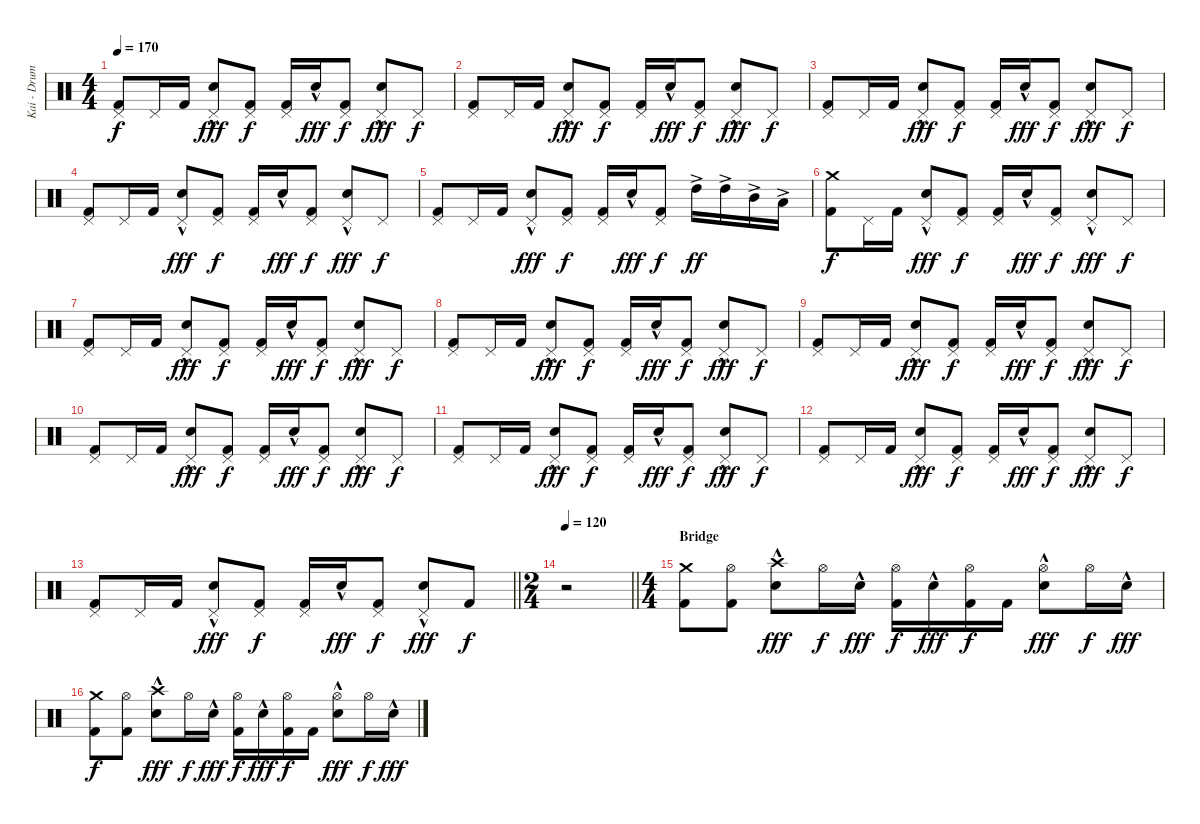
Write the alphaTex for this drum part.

\track ("Kai - Drums" "Kai - Drum") {instrument percussion}
\staff {score}
\articulation defaults
\ts (4 4)
\tempo 170
\clef neutral
\ks c
("Pedal Hi-Hat (hit)" "Kick (hit) 2").8{dy f} "Pedal Hi-Hat (hit)".16 "Kick (hit) 2".16 ("Pedal Hi-Hat (hit)" "Electric Snare (hit)"{hac}).8{dy fff} ("Pedal Hi-Hat (hit)" "Kick (hit) 2").8{dy f} ("Pedal Hi-Hat (hit)" "Kick (hit) 2").16 "Electric Snare (hit)"{hac}.16{dy fff} ("Pedal Hi-Hat (hit)" "Kick (hit) 2").8{dy f} ("Pedal Hi-Hat (hit)" "Electric Snare (hit)"{hac}).8{dy fff} "Pedal Hi-Hat (hit)".8{dy f} |
("Pedal Hi-Hat (hit)" "Kick (hit) 2").8 "Pedal Hi-Hat (hit)".16 "Kick (hit) 2".16 ("Pedal Hi-Hat (hit)" "Electric Snare (hit)"{hac}).8{dy fff} ("Pedal Hi-Hat (hit)" "Kick (hit) 2").8{dy f} ("Pedal Hi-Hat (hit)" "Kick (hit) 2").16 "Electric Snare (hit)"{hac}.16{dy fff} ("Pedal Hi-Hat (hit)" "Kick (hit) 2").8{dy f} ("Pedal Hi-Hat (hit)" "Electric Snare (hit)"{hac}).8{dy fff} "Pedal Hi-Hat (hit)".8{dy f} |
("Pedal Hi-Hat (hit)" "Kick (hit) 2").8 "Pedal Hi-Hat (hit)".16 "Kick (hit) 2".16 ("Pedal Hi-Hat (hit)" "Electric Snare (hit)"{hac}).8{dy fff} ("Pedal Hi-Hat (hit)" "Kick (hit) 2").8{dy f} ("Pedal Hi-Hat (hit)" "Kick (hit) 2").16 "Electric Snare (hit)"{hac}.16{dy fff} ("Pedal Hi-Hat (hit)" "Kick (hit) 2").8{dy f} ("Pedal Hi-Hat (hit)" "Electric Snare (hit)"{hac}).8{dy fff} "Pedal Hi-Hat (hit)".8{dy f} |
("Pedal Hi-Hat (hit)" "Kick (hit) 2").8 "Pedal Hi-Hat (hit)".16 "Kick (hit) 2".16 ("Pedal Hi-Hat (hit)" "Electric Snare (hit)"{hac}).8{dy fff} ("Pedal Hi-Hat (hit)" "Kick (hit) 2").8{dy f} ("Pedal Hi-Hat (hit)" "Kick (hit) 2").16 "Electric Snare (hit)"{hac}.16{dy fff} ("Pedal Hi-Hat (hit)" "Kick (hit) 2").8{dy f} ("Pedal Hi-Hat (hit)" "Electric Snare (hit)"{hac}).8{dy fff} "Pedal Hi-Hat (hit)".8{dy f} |
("Pedal Hi-Hat (hit)" "Kick (hit) 2").8 "Pedal Hi-Hat (hit)".16 "Kick (hit) 2".16 ("Pedal Hi-Hat (hit)" "Electric Snare (hit)"{hac}).8{dy fff} ("Pedal Hi-Hat (hit)" "Kick (hit) 2").8{dy f} ("Pedal Hi-Hat (hit)" "Kick (hit) 2").16 "Electric Snare (hit)"{hac}.16{dy fff} ("Pedal Hi-Hat (hit)" "Kick (hit) 2").8{dy f} "High Tom (hit)"{ac}.16{dy ff} "High Tom (hit)"{ac}.16 "Mid Tom (hit)"{ac}.16 "Low Tom (hit)"{ac}.16 |
("Crash medium (hit)" "Kick (hit) 2").8{dy f} "Pedal Hi-Hat (hit)".16 "Kick (hit) 2".16 ("Pedal Hi-Hat (hit)" "Electric Snare (hit)"{hac}).8{dy fff} ("Pedal Hi-Hat (hit)" "Kick (hit) 2").8{dy f} ("Pedal Hi-Hat (hit)" "Kick (hit) 2").16 "Electric Snare (hit)"{hac}.16{dy fff} ("Pedal Hi-Hat (hit)" "Kick (hit) 2").8{dy f} ("Pedal Hi-Hat (hit)" "Electric Snare (hit)"{hac}).8{dy fff} "Pedal Hi-Hat (hit)".8{dy f} |
("Pedal Hi-Hat (hit)" "Kick (hit) 2").8 "Pedal Hi-Hat (hit)".16 "Kick (hit) 2".16 ("Pedal Hi-Hat (hit)" "Electric Snare (hit)"{hac}).8{dy fff} ("Pedal Hi-Hat (hit)" "Kick (hit) 2").8{dy f} ("Pedal Hi-Hat (hit)" "Kick (hit) 2").16 "Electric Snare (hit)"{hac}.16{dy fff} ("Pedal Hi-Hat (hit)" "Kick (hit) 2").8{dy f} ("Pedal Hi-Hat (hit)" "Electric Snare (hit)"{hac}).8{dy fff} "Pedal Hi-Hat (hit)".8{dy f} |
("Pedal Hi-Hat (hit)" "Kick (hit) 2").8 "Pedal Hi-Hat (hit)".16 "Kick (hit) 2".16 ("Pedal Hi-Hat (hit)" "Electric Snare (hit)"{hac}).8{dy fff} ("Pedal Hi-Hat (hit)" "Kick (hit) 2").8{dy f} ("Pedal Hi-Hat (hit)" "Kick (hit) 2").16 "Electric Snare (hit)"{hac}.16{dy fff} ("Pedal Hi-Hat (hit)" "Kick (hit) 2").8{dy f} ("Pedal Hi-Hat (hit)" "Electric Snare (hit)"{hac}).8{dy fff} "Pedal Hi-Hat (hit)".8{dy f} |
("Pedal Hi-Hat (hit)" "Kick (hit) 2").8 "Pedal Hi-Hat (hit)".16 "Kick (hit) 2".16 ("Pedal Hi-Hat (hit)" "Electric Snare (hit)"{hac}).8{dy fff} ("Pedal Hi-Hat (hit)" "Kick (hit) 2").8{dy f} ("Pedal Hi-Hat (hit)" "Kick (hit) 2").16 "Electric Snare (hit)"{hac}.16{dy fff} ("Pedal Hi-Hat (hit)" "Kick (hit) 2").8{dy f} ("Pedal Hi-Hat (hit)" "Electric Snare (hit)"{hac}).8{dy fff} "Pedal Hi-Hat (hit)".8{dy f} |
("Pedal Hi-Hat (hit)" "Kick (hit) 2").8 "Pedal Hi-Hat (hit)".16 "Kick (hit) 2".16 ("Pedal Hi-Hat (hit)" "Electric Snare (hit)"{hac}).8{dy fff} ("Pedal Hi-Hat (hit)" "Kick (hit) 2").8{dy f} ("Pedal Hi-Hat (hit)" "Kick (hit) 2").16 "Electric Snare (hit)"{hac}.16{dy fff} ("Pedal Hi-Hat (hit)" "Kick (hit) 2").8{dy f} ("Pedal Hi-Hat (hit)" "Electric Snare (hit)"{hac}).8{dy fff} "Pedal Hi-Hat (hit)".8{dy f} |
("Pedal Hi-Hat (hit)" "Kick (hit) 2").8 "Pedal Hi-Hat (hit)".16 "Kick (hit) 2".16 ("Pedal Hi-Hat (hit)" "Electric Snare (hit)"{hac}).8{dy fff} ("Pedal Hi-Hat (hit)" "Kick (hit) 2").8{dy f} ("Pedal Hi-Hat (hit)" "Kick (hit) 2").16 "Electric Snare (hit)"{hac}.16{dy fff} ("Pedal Hi-Hat (hit)" "Kick (hit) 2").8{dy f} ("Pedal Hi-Hat (hit)" "Electric Snare (hit)"{hac}).8{dy fff} "Pedal Hi-Hat (hit)".8{dy f} |
("Pedal Hi-Hat (hit)" "Kick (hit) 2").8 "Pedal Hi-Hat (hit)".16 "Kick (hit) 2".16 ("Pedal Hi-Hat (hit)" "Electric Snare (hit)"{hac}).8{dy fff} ("Pedal Hi-Hat (hit)" "Kick (hit) 2").8{dy f} ("Pedal Hi-Hat (hit)" "Kick (hit) 2").16 "Electric Snare (hit)"{hac}.16{dy fff} ("Pedal Hi-Hat (hit)" "Kick (hit) 2").8{dy f} ("Pedal Hi-Hat (hit)" "Electric Snare (hit)"{hac}).8{dy fff} "Pedal Hi-Hat (hit)".8{dy f} |
\barLineRight lightlight
("Pedal Hi-Hat (hit)" "Kick (hit) 2").8 "Pedal Hi-Hat (hit)".16 "Kick (hit) 2".16 ("Pedal Hi-Hat (hit)" "Electric Snare (hit)"{hac}).8{dy fff} ("Pedal Hi-Hat (hit)" "Kick (hit) 2").8{dy f} ("Pedal Hi-Hat (hit)" "Kick (hit) 2").16 "Electric Snare (hit)"{hac}.16{dy fff} ("Pedal Hi-Hat (hit)" "Kick (hit) 2").8{dy f} ("Pedal Hi-Hat (hit)" "Electric Snare (hit)"{hac}).8{dy fff} "Kick (hit) 2".8{dy f} |
\ts (2 4)
\tempo 120
\barLineRight lightlight
r.2 |
\ts (4 4)
\section ("" "Bridge")
("Crash medium (hit)" "Kick (hit) 2").8 ("Hi-Hat (open)" "Kick (hit) 2").8 ("Crash high (hit)" "Electric Snare (hit)"{hac}).8{dy fff} "Hi-Hat (open)".16{dy f} "Electric Snare (hit)"{hac}.16{dy fff} ("Hi-Hat (open)" "Kick (hit) 2").16{dy f} "Electric Snare (hit)"{hac}.16{dy fff} ("Hi-Hat (open)" "Kick (hit) 2").16{dy f} "Kick (hit) 2".16 ("Hi-Hat (open)" "Electric Snare (hit)"{hac}).8{dy fff} "Hi-Hat (open)".16{dy f} "Electric Snare (hit)"{hac}.16{dy fff} |
("Crash medium (hit)" "Kick (hit) 2").8{dy f} ("Hi-Hat (open)" "Kick (hit) 2").8 ("Crash high (hit)" "Electric Snare (hit)"{hac}).8{dy fff} "Hi-Hat (open)".16{dy f} "Electric Snare (hit)"{hac}.16{dy fff} ("Hi-Hat (open)" "Kick (hit) 2").16{dy f} "Electric Snare (hit)"{hac}.16{dy fff} ("Hi-Hat (open)" "Kick (hit) 2").16{dy f} "Kick (hit) 2".16 ("Hi-Hat (open)" "Electric Snare (hit)"{hac}).8{dy fff} "Hi-Hat (open)".16{dy f} "Electric Snare (hit)"{hac}.16{dy fff}
